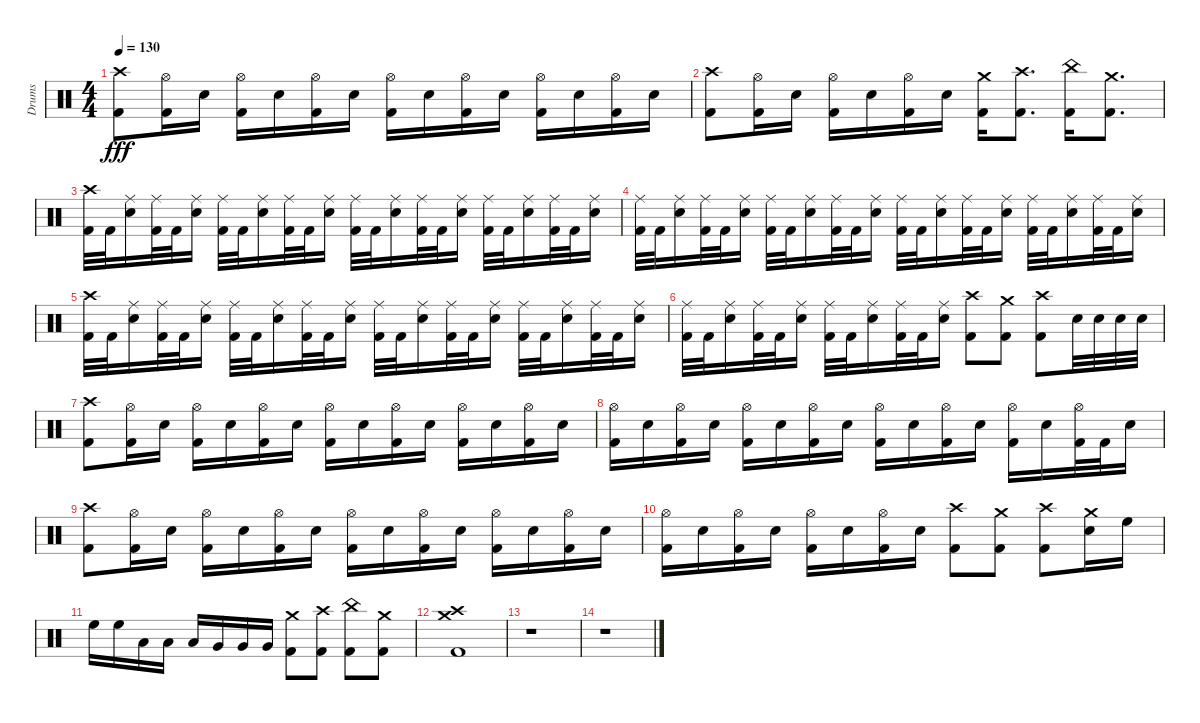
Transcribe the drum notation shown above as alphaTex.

\track ("Drums" "Drums") {instrument percussion}
\staff {score}
\articulation defaults
\ts (4 4)
\tempo 130
\clef neutral
\ks c
("Kick (hit) 2" "Crash high (hit)").8{dy fff} ("Kick (hit) 2" "Hi-Hat (open)").16 "Snare (hit) 2".16 ("Kick (hit) 2" "Hi-Hat (open)").16 "Snare (hit) 2".16 ("Kick (hit) 2" "Hi-Hat (open)").16 "Snare (hit) 2".16 ("Kick (hit) 2" "Hi-Hat (open)").16 "Snare (hit) 2".16 ("Kick (hit) 2" "Hi-Hat (open)").16 "Snare (hit) 2".16 ("Kick (hit) 2" "Hi-Hat (open)").16 "Snare (hit) 2".16 ("Kick (hit) 2" "Hi-Hat (open)").16 "Snare (hit) 2".16 |
("Kick (hit) 2" "Crash high (hit)").8 ("Kick (hit) 2" "Hi-Hat (open)").16 "Snare (hit) 2".16 ("Kick (hit) 2" "Hi-Hat (open)").16 "Snare (hit) 2".16 ("Kick (hit) 2" "Hi-Hat (open)").16 "Snare (hit) 2".16 ("Kick (hit) 2" "Crash medium (hit)").16 ("Kick (hit) 2" "Crash high (hit)").8{d} ("Kick (hit) 2" "China (hit)").16 ("Kick (hit) 2" "Crash medium (hit)").8{d} |
("Kick (hit) 2" "Crash high (hit)").32 "Kick (hit) 2".32 ("Snare (hit) 2" "Ride (middle)").16 ("Kick (hit) 2" "Ride (middle)").32 "Kick (hit) 2".32 ("Snare (hit) 2" "Ride (middle)").16 ("Kick (hit) 2" "Ride (middle)").32 "Kick (hit) 2".32 ("Snare (hit) 2" "Ride (middle)").16 ("Kick (hit) 2" "Ride (middle)").32 "Kick (hit) 2".32 ("Snare (hit) 2" "Ride (middle)").16 ("Kick (hit) 2" "Ride (middle)").32 "Kick (hit) 2".32 ("Snare (hit) 2" "Ride (middle)").16 ("Kick (hit) 2" "Ride (middle)").32 "Kick (hit) 2".32 ("Snare (hit) 2" "Ride (middle)").16 ("Kick (hit) 2" "Ride (middle)").32 "Kick (hit) 2".32 ("Snare (hit) 2" "Ride (middle)").16 ("Kick (hit) 2" "Ride (middle)").32 "Kick (hit) 2".32 ("Snare (hit) 2" "Ride (middle)").16 |
("Kick (hit) 2" "Ride (middle)").32 "Kick (hit) 2".32 ("Snare (hit) 2" "Ride (middle)").16 ("Kick (hit) 2" "Ride (middle)").32 "Kick (hit) 2".32 ("Snare (hit) 2" "Ride (middle)").16 ("Kick (hit) 2" "Ride (middle)").32 "Kick (hit) 2".32 ("Snare (hit) 2" "Ride (middle)").16 ("Kick (hit) 2" "Ride (middle)").32 "Kick (hit) 2".32 ("Snare (hit) 2" "Ride (middle)").16 ("Kick (hit) 2" "Ride (middle)").32 "Kick (hit) 2".32 ("Snare (hit) 2" "Ride (middle)").16 ("Kick (hit) 2" "Ride (middle)").32 "Kick (hit) 2".32 ("Snare (hit) 2" "Ride (middle)").16 ("Kick (hit) 2" "Ride (middle)").32 "Kick (hit) 2".32 ("Snare (hit) 2" "Ride (middle)").16 ("Kick (hit) 2" "Ride (middle)").32 "Kick (hit) 2".32 ("Snare (hit) 2" "Ride (middle)").16 |
("Kick (hit) 2" "Crash high (hit)").32 "Kick (hit) 2".32 ("Snare (hit) 2" "Ride (middle)").16 ("Kick (hit) 2" "Ride (middle)").32 "Kick (hit) 2".32 ("Snare (hit) 2" "Ride (middle)").16 ("Kick (hit) 2" "Ride (middle)").32 "Kick (hit) 2".32 ("Snare (hit) 2" "Ride (middle)").16 ("Kick (hit) 2" "Ride (middle)").32 "Kick (hit) 2".32 ("Snare (hit) 2" "Ride (middle)").16 ("Kick (hit) 2" "Ride (middle)").32 "Kick (hit) 2".32 ("Snare (hit) 2" "Ride (middle)").16 ("Kick (hit) 2" "Ride (middle)").32 "Kick (hit) 2".32 ("Snare (hit) 2" "Ride (middle)").16 ("Kick (hit) 2" "Ride (middle)").32 "Kick (hit) 2".32 ("Snare (hit) 2" "Ride (middle)").16 ("Kick (hit) 2" "Ride (middle)").32 "Kick (hit) 2".32 ("Snare (hit) 2" "Ride (middle)").16 |
("Kick (hit) 2" "Ride (middle)").32 "Kick (hit) 2".32 ("Snare (hit) 2" "Ride (middle)").16 ("Kick (hit) 2" "Ride (middle)").32 "Kick (hit) 2".32 ("Snare (hit) 2" "Ride (middle)").16 ("Kick (hit) 2" "Ride (middle)").32 "Kick (hit) 2".32 ("Snare (hit) 2" "Ride (middle)").16 ("Kick (hit) 2" "Ride (middle)").32 "Kick (hit) 2".32 ("Snare (hit) 2" "Ride (middle)").16 ("Crash high (hit)" "Kick (hit) 2").8 ("Crash medium (hit)" "Kick (hit) 2").8 ("Crash high (hit)" "Kick (hit) 2").8 "Snare (hit) 2".32 "Snare (hit) 2".32 "Snare (hit) 2".32 "Snare (hit) 2".32 |
("Kick (hit) 2" "Crash high (hit)").8 ("Kick (hit) 2" "Hi-Hat (open)").16 "Snare (hit) 2".16 ("Kick (hit) 2" "Hi-Hat (open)").16 "Snare (hit) 2".16 ("Kick (hit) 2" "Hi-Hat (open)").16 "Snare (hit) 2".16 ("Kick (hit) 2" "Hi-Hat (open)").16 "Snare (hit) 2".16 ("Kick (hit) 2" "Hi-Hat (open)").16 "Snare (hit) 2".16 ("Kick (hit) 2" "Hi-Hat (open)").16 "Snare (hit) 2".16 ("Kick (hit) 2" "Hi-Hat (open)").16 "Snare (hit) 2".16 |
("Kick (hit) 2" "Hi-Hat (open)").16 "Snare (hit) 2".16 ("Kick (hit) 2" "Hi-Hat (open)").16 "Snare (hit) 2".16 ("Kick (hit) 2" "Hi-Hat (open)").16 "Snare (hit) 2".16 ("Kick (hit) 2" "Hi-Hat (open)").16 "Snare (hit) 2".16 ("Kick (hit) 2" "Hi-Hat (open)").16 "Snare (hit) 2".16 ("Kick (hit) 2" "Hi-Hat (open)").16 "Snare (hit) 2".16 ("Kick (hit) 2" "Hi-Hat (open)").16 "Snare (hit) 2".16 ("Kick (hit) 2" "Hi-Hat (open)").32 "Kick (hit) 2".32 "Snare (hit) 2".16 |
("Kick (hit) 2" "Crash high (hit)").8 ("Kick (hit) 2" "Hi-Hat (open)").16 "Snare (hit) 2".16 ("Kick (hit) 2" "Hi-Hat (open)").16 "Snare (hit) 2".16 ("Kick (hit) 2" "Hi-Hat (open)").16 "Snare (hit) 2".16 ("Kick (hit) 2" "Hi-Hat (open)").16 "Snare (hit) 2".16 ("Kick (hit) 2" "Hi-Hat (open)").16 "Snare (hit) 2".16 ("Kick (hit) 2" "Hi-Hat (open)").16 "Snare (hit) 2".16 ("Kick (hit) 2" "Hi-Hat (open)").16 "Snare (hit) 2".16 |
("Kick (hit) 2" "Hi-Hat (open)").16 "Snare (hit) 2".16 ("Kick (hit) 2" "Hi-Hat (open)").16 "Snare (hit) 2".16 ("Kick (hit) 2" "Hi-Hat (open)").16 "Snare (hit) 2".16 ("Kick (hit) 2" "Hi-Hat (open)").16 "Snare (hit) 2".16 ("Crash high (hit)" "Kick (hit) 2").8 ("Crash medium (hit)" "Kick (hit) 2").8 ("Crash high (hit)" "Kick (hit) 2").8 ("Crash medium (hit)" "Snare (hit) 2").16 "High Floor Tom (hit)".16 |
"High Floor Tom (hit)".16 "High Floor Tom (hit)".16 "Low Tom (hit)".16 "Low Tom (hit)".16 "Low Tom (hit)".16 "Very Low Tom (hit)".16 "Very Low Tom (hit)".16 "Very Low Tom (hit)".16 ("Crash medium (hit)" "Kick (hit) 2").8 ("Crash high (hit)" "Kick (hit) 2").8 ("China (hit)" "Kick (hit) 2").8 ("Crash medium (hit)" "Kick (hit) 2").8 |
("Crash medium (hit)" "Crash high (hit)" "Kick (hit) 2").1 |
r.1 |
r.1
